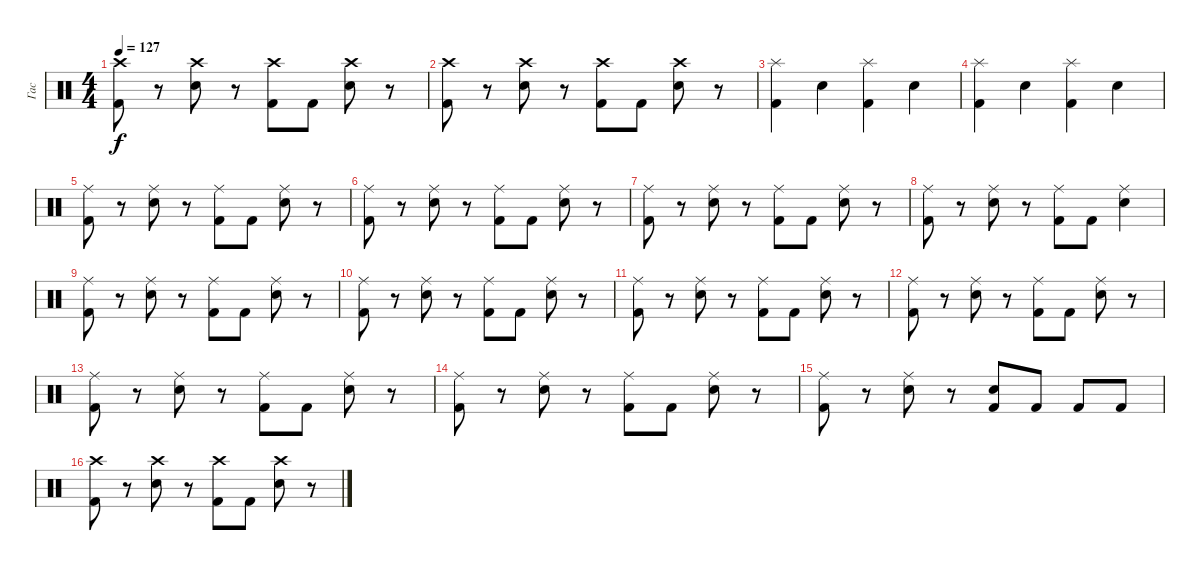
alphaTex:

\track ("Гас" "Гас") {instrument percussion}
\staff {score}
\articulation defaults
\ts (4 4)
\tempo 127
\clef neutral
\ks c
("Crash high (hit)" "Kick (hit) 2").8{dy f} r.8 ("Crash high (hit)" "Electric Snare (hit)").8 r.8 ("Crash high (hit)" "Kick (hit) 2").8 "Kick (hit) 2".8 ("Crash high (hit)" "Electric Snare (hit)").8 r.8 |
("Crash high (hit)" "Kick (hit) 2").8 r.8 ("Crash high (hit)" "Electric Snare (hit)").8 r.8 ("Crash high (hit)" "Kick (hit) 2").8 "Kick (hit) 2".8 ("Crash high (hit)" "Electric Snare (hit)").8 r.8 |
("Splash (hit)" "Kick (hit) 2").4 "Electric Snare (hit)".4 ("Splash (hit)" "Kick (hit) 2").4 "Electric Snare (hit)".4 |
("Splash (hit)" "Kick (hit) 2").4 "Electric Snare (hit)".4 ("Splash (hit)" "Kick (hit) 2").4 "Electric Snare (hit)".4 |
("Ride (middle)" "Kick (hit) 2").8 r.8 ("Ride (middle)" "Electric Snare (hit)").8 r.8 ("Ride (middle)" "Kick (hit) 2").8 "Kick (hit) 2".8 ("Ride (middle)" "Electric Snare (hit)").8 r.8 |
("Ride (middle)" "Kick (hit) 2").8 r.8 ("Ride (middle)" "Electric Snare (hit)").8 r.8 ("Ride (middle)" "Kick (hit) 2").8 "Kick (hit) 2".8 ("Ride (middle)" "Electric Snare (hit)").8 r.8 |
("Ride (middle)" "Kick (hit) 2").8 r.8 ("Ride (middle)" "Electric Snare (hit)").8 r.8 ("Ride (middle)" "Kick (hit) 2").8 "Kick (hit) 2".8 ("Ride (middle)" "Electric Snare (hit)").8 r.8 |
("Ride (middle)" "Kick (hit) 2").8 r.8 ("Ride (middle)" "Electric Snare (hit)").8 r.8 ("Ride (middle)" "Kick (hit) 2").8 "Kick (hit) 2".8 ("Ride (middle)" "Electric Snare (hit)").4 |
("Ride (middle)" "Kick (hit) 2").8 r.8 ("Ride (middle)" "Electric Snare (hit)").8 r.8 ("Ride (middle)" "Kick (hit) 2").8 "Kick (hit) 2".8 ("Ride (middle)" "Electric Snare (hit)").8 r.8 |
("Ride (middle)" "Kick (hit) 2").8 r.8 ("Ride (middle)" "Electric Snare (hit)").8 r.8 ("Ride (middle)" "Kick (hit) 2").8 "Kick (hit) 2".8 ("Ride (middle)" "Electric Snare (hit)").8 r.8 |
("Ride (middle)" "Kick (hit) 2").8 r.8 ("Ride (middle)" "Electric Snare (hit)").8 r.8 ("Ride (middle)" "Kick (hit) 2").8 "Kick (hit) 2".8 ("Ride (middle)" "Electric Snare (hit)").8 r.8 |
("Ride (middle)" "Kick (hit) 2").8 r.8 ("Ride (middle)" "Electric Snare (hit)").8 r.8 ("Ride (middle)" "Kick (hit) 2").8 "Kick (hit) 2".8 ("Ride (middle)" "Electric Snare (hit)").8 r.8 |
("Ride (middle)" "Kick (hit) 2").8 r.8 ("Ride (middle)" "Electric Snare (hit)").8 r.8 ("Ride (middle)" "Kick (hit) 2").8 "Kick (hit) 2".8 ("Ride (middle)" "Electric Snare (hit)").8 r.8 |
("Ride (middle)" "Kick (hit) 2").8 r.8 ("Ride (middle)" "Electric Snare (hit)").8 r.8 ("Ride (middle)" "Kick (hit) 2").8 "Kick (hit) 2".8 ("Ride (middle)" "Electric Snare (hit)").8 r.8 |
("Ride (middle)" "Kick (hit) 2").8 r.8 ("Ride (middle)" "Electric Snare (hit)").8 r.8 ("Electric Snare (hit)" "Kick (hit) 2").8 "Kick (hit) 2".8 "Kick (hit) 2".8 "Kick (hit) 2".8 |
("Crash high (hit)" "Kick (hit) 2").8 r.8 ("Crash high (hit)" "Electric Snare (hit)").8 r.8 ("Crash high (hit)" "Kick (hit) 2").8 "Kick (hit) 2".8 ("Crash high (hit)" "Electric Snare (hit)").8 r.8
